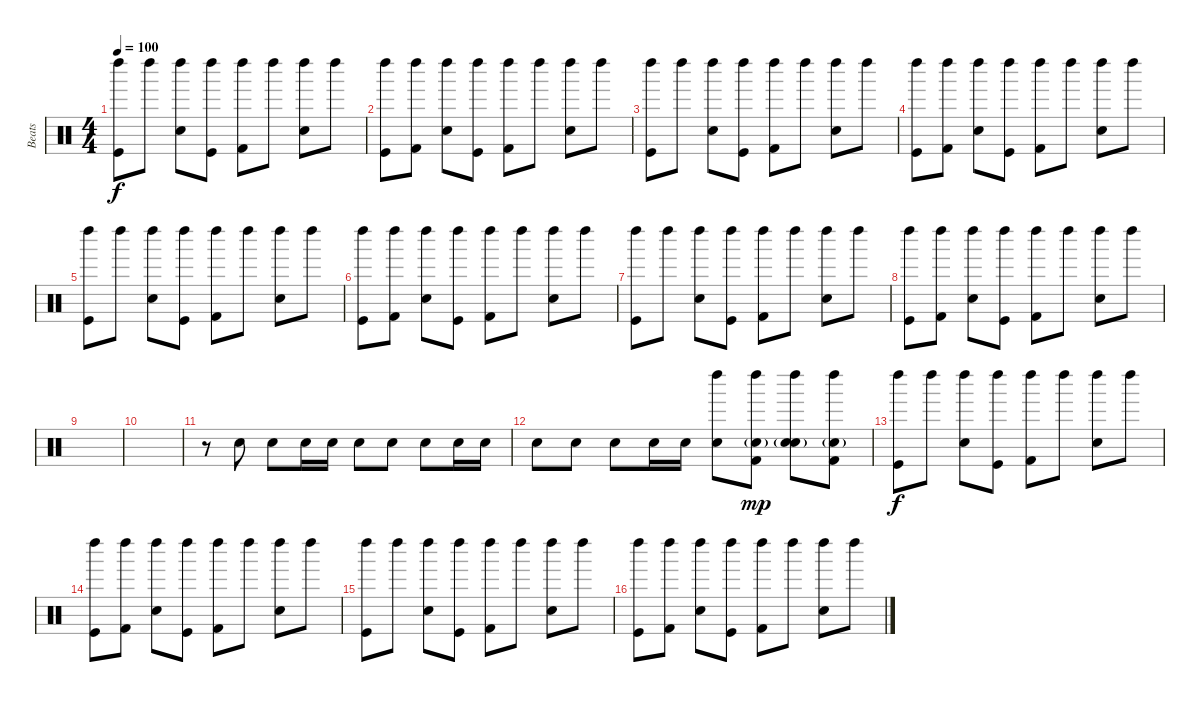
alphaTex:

\track ("Beats " "Beats ") {instrument percussion}
\staff {score}
\articulation defaults
\ts (4 4)
\tempo 100
\clef neutral
\ks c
("Left Maraca (hit)" "Kick (hit)").8{dy f} "Left Maraca (hit)".8 ("Left Maraca (hit)" "Snare (hit) 2").8 ("Left Maraca (hit)" "Kick (hit)").8 ("Left Maraca (hit)" "Kick (hit) 2").8 "Left Maraca (hit)".8 ("Left Maraca (hit)" "Snare (hit) 2").8 "Left Maraca (hit)".8 |
("Left Maraca (hit)" "Kick (hit)").8 ("Left Maraca (hit)" "Kick (hit) 2").8 ("Left Maraca (hit)" "Snare (hit) 2").8 ("Left Maraca (hit)" "Kick (hit)").8 ("Left Maraca (hit)" "Kick (hit) 2").8 "Left Maraca (hit)".8 ("Left Maraca (hit)" "Snare (hit) 2").8 "Left Maraca (hit)".8 |
("Left Maraca (hit)" "Kick (hit)").8 "Left Maraca (hit)".8 ("Left Maraca (hit)" "Snare (hit) 2").8 ("Left Maraca (hit)" "Kick (hit)").8 ("Left Maraca (hit)" "Kick (hit) 2").8 "Left Maraca (hit)".8 ("Left Maraca (hit)" "Snare (hit) 2").8 "Left Maraca (hit)".8 |
("Left Maraca (hit)" "Kick (hit)").8 ("Left Maraca (hit)" "Kick (hit) 2").8 ("Left Maraca (hit)" "Snare (hit) 2").8 ("Left Maraca (hit)" "Kick (hit)").8 ("Left Maraca (hit)" "Kick (hit) 2").8 "Left Maraca (hit)".8 ("Left Maraca (hit)" "Snare (hit) 2").8 "Left Maraca (hit)".8 |
("Left Maraca (hit)" "Kick (hit)").8 "Left Maraca (hit)".8 ("Left Maraca (hit)" "Snare (hit) 2").8 ("Left Maraca (hit)" "Kick (hit)").8 ("Left Maraca (hit)" "Kick (hit) 2").8 "Left Maraca (hit)".8 ("Left Maraca (hit)" "Snare (hit) 2").8 "Left Maraca (hit)".8 |
("Left Maraca (hit)" "Kick (hit)").8 ("Left Maraca (hit)" "Kick (hit) 2").8 ("Left Maraca (hit)" "Snare (hit) 2").8 ("Left Maraca (hit)" "Kick (hit)").8 ("Left Maraca (hit)" "Kick (hit) 2").8 "Left Maraca (hit)".8 ("Left Maraca (hit)" "Snare (hit) 2").8 "Left Maraca (hit)".8 |
("Left Maraca (hit)" "Kick (hit)").8 "Left Maraca (hit)".8 ("Left Maraca (hit)" "Snare (hit) 2").8 ("Left Maraca (hit)" "Kick (hit)").8 ("Left Maraca (hit)" "Kick (hit) 2").8 "Left Maraca (hit)".8 ("Left Maraca (hit)" "Snare (hit) 2").8 "Left Maraca (hit)".8 |
("Left Maraca (hit)" "Kick (hit)").8 ("Left Maraca (hit)" "Kick (hit) 2").8 ("Left Maraca (hit)" "Snare (hit) 2").8 ("Left Maraca (hit)" "Kick (hit)").8 ("Left Maraca (hit)" "Kick (hit) 2").8 "Left Maraca (hit)".8 ("Left Maraca (hit)" "Snare (hit) 2").8 "Left Maraca (hit)".8 |
|
|
r.8 "Snare (hit) 2".8 "Snare (hit) 2".8 "Snare (hit) 2".16 "Snare (hit) 2".16 "Snare (hit) 2".8 "Snare (hit) 2".8 "Snare (hit) 2".8 "Snare (hit) 2".16 "Snare (hit) 2".16 |
"Snare (hit) 2".8 "Snare (hit) 2".8 "Snare (hit) 2".8 "Snare (hit) 2".16 "Snare (hit) 2".16 ("Left Maraca (hit)" "Snare (hit) 2").8 ("Left Maraca (hit)" "Snare (hit) 2"{g} "Kick (hit) 2").8{dy mp} ("Left Maraca (hit)" "Snare (hit) 2"{g} "Snare (hit) 2").8 ("Left Maraca (hit)" "Snare (hit) 2"{g} "Kick (hit) 2").8 |
("Left Maraca (hit)" "Kick (hit)").8{dy f} "Left Maraca (hit)".8 ("Left Maraca (hit)" "Snare (hit) 2").8 ("Left Maraca (hit)" "Kick (hit)").8 ("Left Maraca (hit)" "Kick (hit) 2").8 "Left Maraca (hit)".8 ("Left Maraca (hit)" "Snare (hit) 2").8 "Left Maraca (hit)".8 |
("Left Maraca (hit)" "Kick (hit)").8 ("Left Maraca (hit)" "Kick (hit) 2").8 ("Left Maraca (hit)" "Snare (hit) 2").8 ("Left Maraca (hit)" "Kick (hit)").8 ("Left Maraca (hit)" "Kick (hit) 2").8 "Left Maraca (hit)".8 ("Left Maraca (hit)" "Snare (hit) 2").8 "Left Maraca (hit)".8 |
("Left Maraca (hit)" "Kick (hit)").8 "Left Maraca (hit)".8 ("Left Maraca (hit)" "Snare (hit) 2").8 ("Left Maraca (hit)" "Kick (hit)").8 ("Left Maraca (hit)" "Kick (hit) 2").8 "Left Maraca (hit)".8 ("Left Maraca (hit)" "Snare (hit) 2").8 "Left Maraca (hit)".8 |
("Left Maraca (hit)" "Kick (hit)").8 ("Left Maraca (hit)" "Kick (hit) 2").8 ("Left Maraca (hit)" "Snare (hit) 2").8 ("Left Maraca (hit)" "Kick (hit)").8 ("Left Maraca (hit)" "Kick (hit) 2").8 "Left Maraca (hit)".8 ("Left Maraca (hit)" "Snare (hit) 2").8 "Left Maraca (hit)".8
